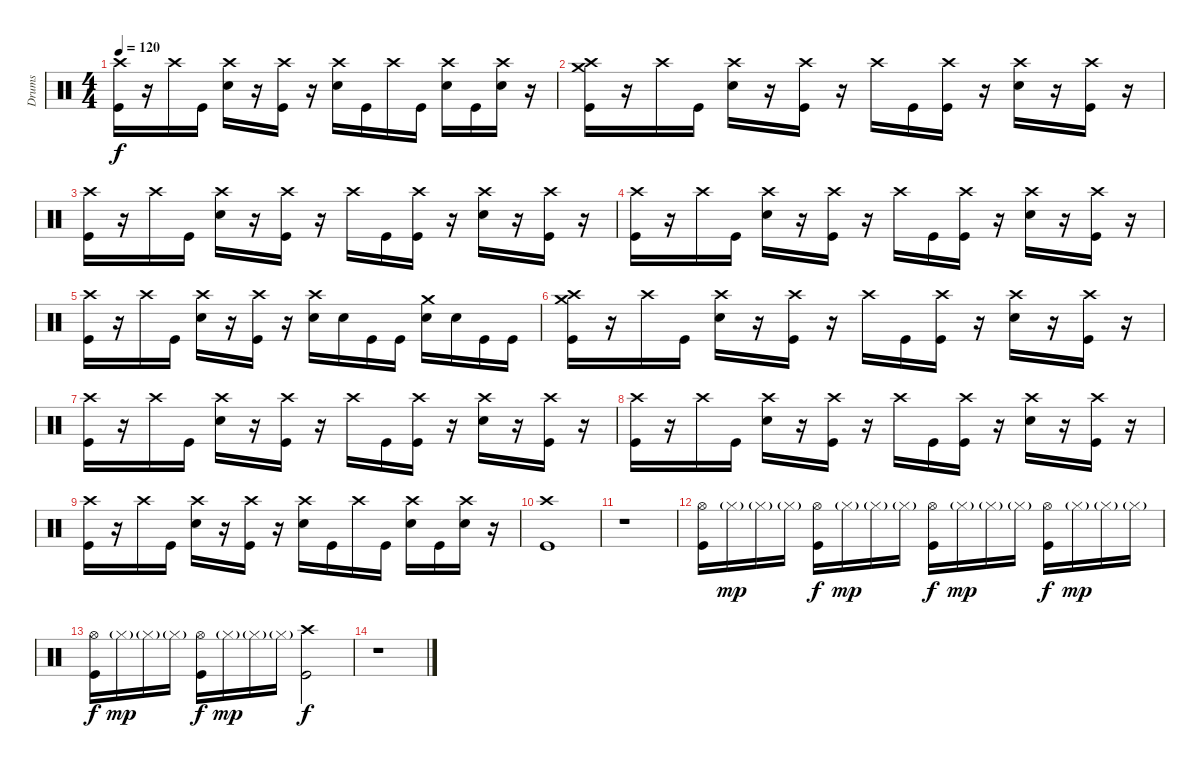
\track ("Drums" "Drums") {instrument percussion}
\staff {score}
\articulation defaults
\ts (4 4)
\tempo 120
\clef neutral
\ks c
("Crash high (hit)" "Kick (hit)").16{dy f} r.16 "Crash high (hit)".16 "Kick (hit)".16 ("Crash high (hit)" "Snare (hit) 2").16 r.16 ("Crash high (hit)" "Kick (hit)").16 r.16 ("Crash high (hit)" "Snare (hit) 2").16 "Kick (hit)".16 "Crash high (hit)".16 "Kick (hit)".16 ("Crash high (hit)" "Snare (hit) 2").16 "Kick (hit)".16 ("Crash high (hit)" "Snare (hit) 2").16 r.16 |
("Crash medium (hit)" "Crash high (hit)" "Kick (hit)").16 r.16 "Crash high (hit)".16 "Kick (hit)".16 ("Crash high (hit)" "Snare (hit) 2").16 r.16 ("Crash high (hit)" "Kick (hit)").16 r.16 "Crash high (hit)".16 "Kick (hit)".16 ("Crash high (hit)" "Kick (hit)").16 r.16 ("Crash high (hit)" "Snare (hit) 2").16 r.16 ("Crash high (hit)" "Kick (hit)").16 r.16 |
("Crash high (hit)" "Kick (hit)").16 r.16 "Crash high (hit)".16 "Kick (hit)".16 ("Crash high (hit)" "Snare (hit) 2").16 r.16 ("Crash high (hit)" "Kick (hit)").16 r.16 "Crash high (hit)".16 "Kick (hit)".16 ("Crash high (hit)" "Kick (hit)").16 r.16 ("Crash high (hit)" "Snare (hit) 2").16 r.16 ("Crash high (hit)" "Kick (hit)").16 r.16 |
("Crash high (hit)" "Kick (hit)").16 r.16 "Crash high (hit)".16 "Kick (hit)".16 ("Crash high (hit)" "Snare (hit) 2").16 r.16 ("Crash high (hit)" "Kick (hit)").16 r.16 "Crash high (hit)".16 "Kick (hit)".16 ("Crash high (hit)" "Kick (hit)").16 r.16 ("Crash high (hit)" "Snare (hit) 2").16 r.16 ("Crash high (hit)" "Kick (hit)").16 r.16 |
("Crash high (hit)" "Kick (hit)").16 r.16 "Crash high (hit)".16 "Kick (hit)".16 ("Crash high (hit)" "Snare (hit) 2").16 r.16 ("Crash high (hit)" "Kick (hit)").16 r.16 ("Crash high (hit)" "Snare (hit) 2").16 "Snare (hit) 2".16 "Kick (hit)".16 "Kick (hit)".16 ("Crash medium (hit)" "Snare (hit) 2").16 "Snare (hit) 2".16 "Kick (hit)".16 "Kick (hit)".16 |
("Crash medium (hit)" "Crash high (hit)" "Kick (hit)").16 r.16 "Crash high (hit)".16 "Kick (hit)".16 ("Crash high (hit)" "Snare (hit) 2").16 r.16 ("Crash high (hit)" "Kick (hit)").16 r.16 "Crash high (hit)".16 "Kick (hit)".16 ("Crash high (hit)" "Kick (hit)").16 r.16 ("Crash high (hit)" "Snare (hit) 2").16 r.16 ("Crash high (hit)" "Kick (hit)").16 r.16 |
("Crash high (hit)" "Kick (hit)").16 r.16 "Crash high (hit)".16 "Kick (hit)".16 ("Crash high (hit)" "Snare (hit) 2").16 r.16 ("Crash high (hit)" "Kick (hit)").16 r.16 "Crash high (hit)".16 "Kick (hit)".16 ("Crash high (hit)" "Kick (hit)").16 r.16 ("Crash high (hit)" "Snare (hit) 2").16 r.16 ("Crash high (hit)" "Kick (hit)").16 r.16 |
("Crash high (hit)" "Kick (hit)").16 r.16 "Crash high (hit)".16 "Kick (hit)".16 ("Crash high (hit)" "Snare (hit) 2").16 r.16 ("Crash high (hit)" "Kick (hit)").16 r.16 "Crash high (hit)".16 "Kick (hit)".16 ("Crash high (hit)" "Kick (hit)").16 r.16 ("Crash high (hit)" "Snare (hit) 2").16 r.16 ("Crash high (hit)" "Kick (hit)").16 r.16 |
("Crash high (hit)" "Kick (hit)").16 r.16 "Crash high (hit)".16 "Kick (hit)".16 ("Crash high (hit)" "Snare (hit) 2").16 r.16 ("Crash high (hit)" "Kick (hit)").16 r.16 ("Crash high (hit)" "Snare (hit) 2").16 "Kick (hit)".16 "Crash high (hit)".16 "Kick (hit)".16 ("Crash high (hit)" "Snare (hit) 2").16 "Kick (hit)".16 ("Crash high (hit)" "Snare (hit) 2").16 r.16 |
("Crash high (hit)" "Kick (hit)").1 |
r.1 |
("Hi-Hat (open)" "Kick (hit)").16 "Hi-Hat (closed)"{g}.16{dy mp} "Hi-Hat (closed)"{g}.16 "Hi-Hat (closed)"{g}.16 ("Hi-Hat (open)" "Kick (hit)").16{dy f} "Hi-Hat (closed)"{g}.16{dy mp} "Hi-Hat (closed)"{g}.16 "Hi-Hat (closed)"{g}.16 ("Hi-Hat (open)" "Kick (hit)").16{dy f} "Hi-Hat (closed)"{g}.16{dy mp} "Hi-Hat (closed)"{g}.16 "Hi-Hat (closed)"{g}.16 ("Hi-Hat (open)" "Kick (hit)").16{dy f} "Hi-Hat (closed)"{g}.16{dy mp} "Hi-Hat (closed)"{g}.16 "Hi-Hat (closed)"{g}.16 |
("Hi-Hat (open)" "Kick (hit)").16{dy f} "Hi-Hat (closed)"{g}.16{dy mp} "Hi-Hat (closed)"{g}.16 "Hi-Hat (closed)"{g}.16 ("Hi-Hat (open)" "Kick (hit)").16{dy f} "Hi-Hat (closed)"{g}.16{dy mp} "Hi-Hat (closed)"{g}.16 "Hi-Hat (closed)"{g}.16 ("Crash high (hit)" "Kick (hit)").2{dy f} |
r.1
